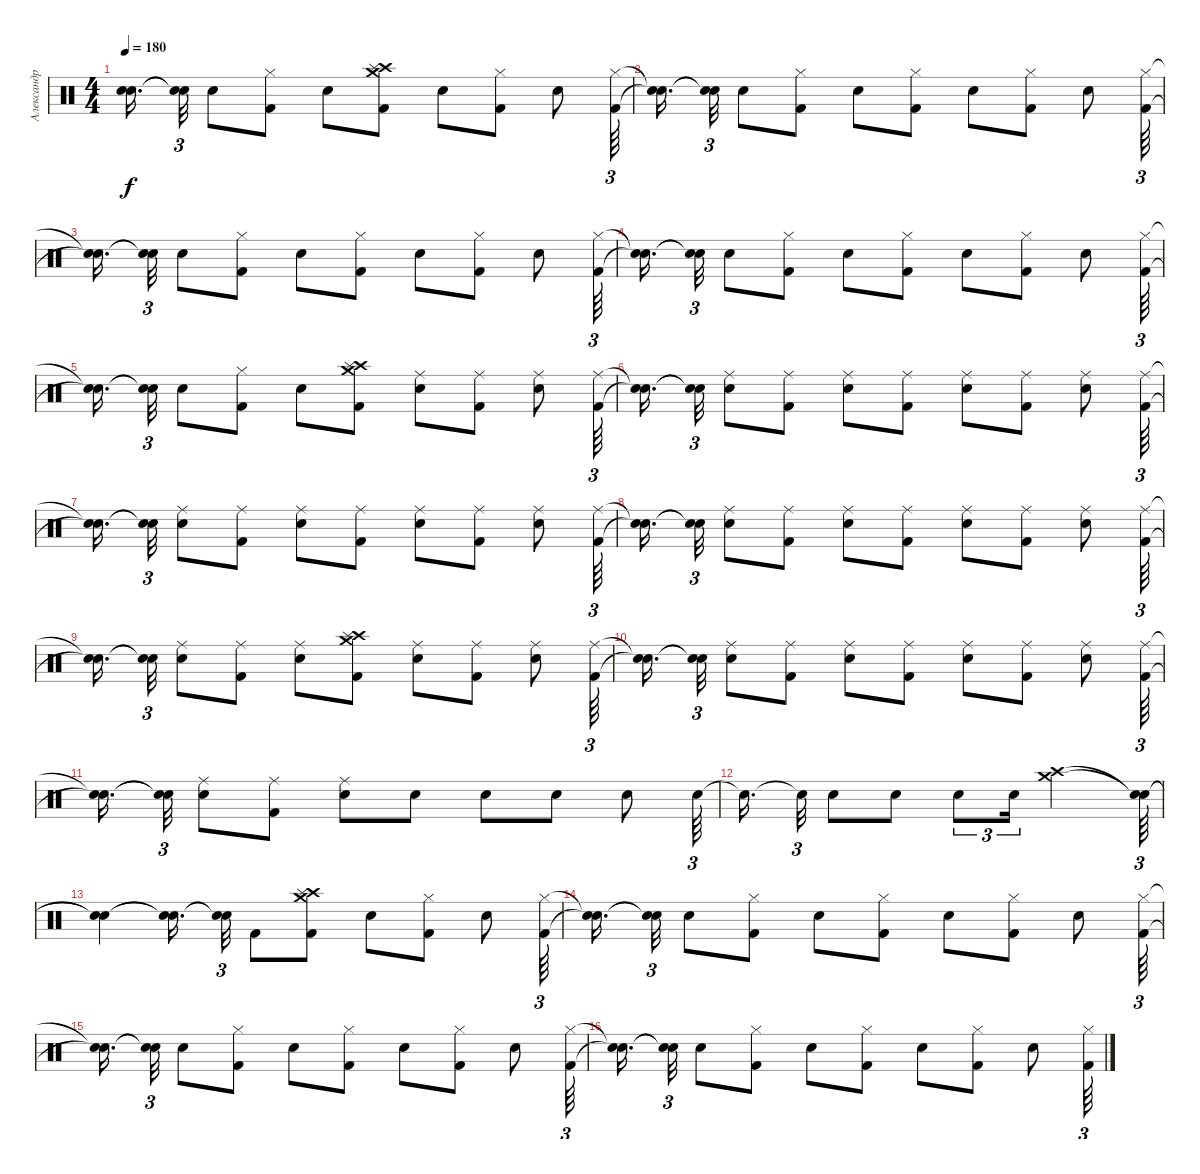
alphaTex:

\track ("Александр Карпухин" "Александр ") {instrument percussion}
\staff {score}
\articulation defaults
\ts (4 4)
\tempo 180
\clef neutral
\ks c
("Snare (hit)"{t} "Snare (hit)"{t}).16{d dy f beam splitsecondary} ("Snare (hit)"{t} "Snare (hit)"{t}).32{tu (3 2)} "Snare (hit) 2".8 ("Hi-Hat (closed)" "Kick (hit) 2").8 "Snare (hit) 2".8 ("Crash high (hit)" "Crash medium (hit)" "Splash (hit)" "Kick (hit) 2").8 "Snare (hit) 2".8 ("Hi-Hat (closed)" "Kick (hit) 2").8 "Snare (hit) 2".8 ("Hi-Hat (closed)" "Kick (hit) 2").64{tu (3 2)} |
("Snare (hit)"{t} "Snare (hit)"{t}).16{d beam splitsecondary} ("Snare (hit)"{t} "Snare (hit)"{t}).32{tu (3 2)} "Snare (hit) 2".8 ("Hi-Hat (closed)" "Kick (hit) 2").8 "Snare (hit) 2".8 ("Hi-Hat (closed)" "Kick (hit) 2").8 "Snare (hit) 2".8 ("Hi-Hat (closed)" "Kick (hit) 2").8 "Snare (hit) 2".8 ("Hi-Hat (closed)" "Kick (hit) 2").64{tu (3 2)} |
("Snare (hit)"{t} "Snare (hit)"{t}).16{d beam splitsecondary} ("Snare (hit)"{t} "Snare (hit)"{t}).32{tu (3 2)} "Snare (hit) 2".8 ("Hi-Hat (closed)" "Kick (hit) 2").8 "Snare (hit) 2".8 ("Hi-Hat (closed)" "Kick (hit) 2").8 "Snare (hit) 2".8 ("Hi-Hat (closed)" "Kick (hit) 2").8 "Snare (hit) 2".8 ("Hi-Hat (closed)" "Kick (hit) 2").64{tu (3 2)} |
("Snare (hit)"{t} "Snare (hit)"{t}).16{d beam splitsecondary} ("Snare (hit)"{t} "Snare (hit)"{t}).32{tu (3 2)} "Snare (hit) 2".8 ("Hi-Hat (closed)" "Kick (hit) 2").8 "Snare (hit) 2".8 ("Hi-Hat (closed)" "Kick (hit) 2").8 "Snare (hit) 2".8 ("Hi-Hat (closed)" "Kick (hit) 2").8 "Snare (hit) 2".8 ("Hi-Hat (closed)" "Kick (hit) 2").64{tu (3 2)} |
("Snare (hit)"{t} "Snare (hit)"{t}).16{d beam splitsecondary} ("Snare (hit)"{t} "Snare (hit)"{t}).32{tu (3 2)} "Snare (hit) 2".8 ("Hi-Hat (closed)" "Kick (hit) 2").8 "Snare (hit) 2".8 ("Crash high (hit)" "Crash medium (hit)" "Splash (hit)" "Kick (hit) 2").8 ("Ride (middle)" "Snare (hit) 2").8 ("Ride (middle)" "Kick (hit) 2").8 ("Ride (middle)" "Snare (hit) 2").8 ("Ride (middle)" "Kick (hit) 2").64{tu (3 2)} |
("Snare (hit)"{t} "Snare (hit)"{t}).16{d beam splitsecondary} ("Snare (hit)"{t} "Snare (hit)"{t}).32{tu (3 2)} ("Ride (middle)" "Snare (hit) 2").8 ("Ride (middle)" "Kick (hit) 2").8 ("Ride (middle)" "Snare (hit) 2").8 ("Ride (middle)" "Kick (hit) 2").8 ("Ride (middle)" "Snare (hit) 2").8 ("Ride (middle)" "Kick (hit) 2").8 ("Ride (middle)" "Snare (hit) 2").8 ("Ride (middle)" "Kick (hit) 2").64{tu (3 2)} |
("Snare (hit)"{t} "Snare (hit)"{t}).16{d beam splitsecondary} ("Snare (hit)"{t} "Snare (hit)"{t}).32{tu (3 2)} ("Ride (middle)" "Snare (hit) 2").8 ("Ride (middle)" "Kick (hit) 2").8 ("Ride (middle)" "Snare (hit) 2").8 ("Ride (middle)" "Kick (hit) 2").8 ("Ride (middle)" "Snare (hit) 2").8 ("Ride (middle)" "Kick (hit) 2").8 ("Ride (middle)" "Snare (hit) 2").8 ("Ride (middle)" "Kick (hit) 2").64{tu (3 2)} |
("Snare (hit)"{t} "Snare (hit)"{t}).16{d beam splitsecondary} ("Snare (hit)"{t} "Snare (hit)"{t}).32{tu (3 2)} ("Ride (middle)" "Snare (hit) 2").8 ("Ride (middle)" "Kick (hit) 2").8 ("Ride (middle)" "Snare (hit) 2").8 ("Ride (middle)" "Kick (hit) 2").8 ("Ride (middle)" "Snare (hit) 2").8 ("Ride (middle)" "Kick (hit) 2").8 ("Ride (middle)" "Snare (hit) 2").8 ("Ride (middle)" "Kick (hit) 2").64{tu (3 2)} |
("Snare (hit)"{t} "Snare (hit)"{t}).16{d beam splitsecondary} ("Snare (hit)"{t} "Snare (hit)"{t}).32{tu (3 2)} ("Ride (middle)" "Snare (hit) 2").8 ("Ride (middle)" "Kick (hit) 2").8 ("Ride (middle)" "Snare (hit) 2").8 ("Crash high (hit)" "Crash medium (hit)" "Splash (hit)" "Kick (hit) 2").8 ("Ride (middle)" "Snare (hit) 2").8 ("Ride (middle)" "Kick (hit) 2").8 ("Ride (middle)" "Snare (hit) 2").8 ("Ride (middle)" "Kick (hit) 2").64{tu (3 2)} |
("Snare (hit)"{t} "Snare (hit)"{t}).16{d beam splitsecondary} ("Snare (hit)"{t} "Snare (hit)"{t}).32{tu (3 2)} ("Ride (middle)" "Snare (hit) 2").8 ("Ride (middle)" "Kick (hit) 2").8 ("Ride (middle)" "Snare (hit) 2").8 ("Ride (middle)" "Kick (hit) 2").8 ("Ride (middle)" "Snare (hit) 2").8 ("Ride (middle)" "Kick (hit) 2").8 ("Ride (middle)" "Snare (hit) 2").8 ("Ride (middle)" "Kick (hit) 2").64{tu (3 2)} |
("Snare (hit)"{t} "Snare (hit)"{t}).16{d beam splitsecondary} ("Snare (hit)"{t} "Snare (hit)"{t}).32{tu (3 2)} ("Ride (middle)" "Snare (hit) 2").8 ("Ride (middle)" "Kick (hit) 2").8 ("Ride (middle)" "Snare (hit) 2").8 "Snare (hit) 2".8 "Snare (hit) 2".8 "Snare (hit) 2".8 "Snare (hit) 2".8 "Snare (hit) 2".64{tu (3 2)} |
"Snare (hit)"{t}.16{d beam splitsecondary} "Snare (hit)"{t}.32{tu (3 2)} "Snare (hit) 2".8 "Snare (hit) 2".8 "Snare (hit) 2".8{tu (3 2)} "Snare (hit) 2".16{tu (3 2)} ("Crash high (hit)" "Crash medium (hit)").2 ("Snare (hit)"{t} "Snare (hit)"{t}).64{tu (3 2)} |
("Snare (hit)"{t} "Snare (hit)"{t}).4 ("Snare (hit)"{t} "Snare (hit)"{t}).16{d beam splitsecondary} ("Snare (hit)"{t} "Snare (hit)"{t}).32{tu (3 2)} "Kick (hit) 2".8 ("Crash high (hit)" "Crash medium (hit)" "Splash (hit)" "Kick (hit) 2").8 "Snare (hit) 2".8 ("Hi-Hat (closed)" "Kick (hit) 2").8 "Snare (hit) 2".8 ("Hi-Hat (closed)" "Kick (hit) 2").64{tu (3 2)} |
("Snare (hit)"{t} "Snare (hit)"{t}).16{d beam splitsecondary} ("Snare (hit)"{t} "Snare (hit)"{t}).32{tu (3 2)} "Snare (hit) 2".8 ("Hi-Hat (closed)" "Kick (hit) 2").8 "Snare (hit) 2".8 ("Hi-Hat (closed)" "Kick (hit) 2").8 "Snare (hit) 2".8 ("Hi-Hat (closed)" "Kick (hit) 2").8 "Snare (hit) 2".8 ("Hi-Hat (closed)" "Kick (hit) 2").64{tu (3 2)} |
("Snare (hit)"{t} "Snare (hit)"{t}).16{d beam splitsecondary} ("Snare (hit)"{t} "Snare (hit)"{t}).32{tu (3 2)} "Snare (hit) 2".8 ("Hi-Hat (closed)" "Kick (hit) 2").8 "Snare (hit) 2".8 ("Hi-Hat (closed)" "Kick (hit) 2").8 "Snare (hit) 2".8 ("Hi-Hat (closed)" "Kick (hit) 2").8 "Snare (hit) 2".8 ("Hi-Hat (closed)" "Kick (hit) 2").64{tu (3 2)} |
("Snare (hit)"{t} "Snare (hit)"{t}).16{d beam splitsecondary} ("Snare (hit)"{t} "Snare (hit)"{t}).32{tu (3 2)} "Snare (hit) 2".8 ("Hi-Hat (closed)" "Kick (hit) 2").8 "Snare (hit) 2".8 ("Hi-Hat (closed)" "Kick (hit) 2").8 "Snare (hit) 2".8 ("Hi-Hat (closed)" "Kick (hit) 2").8 "Snare (hit) 2".8 ("Hi-Hat (closed)" "Kick (hit) 2").64{tu (3 2)}
